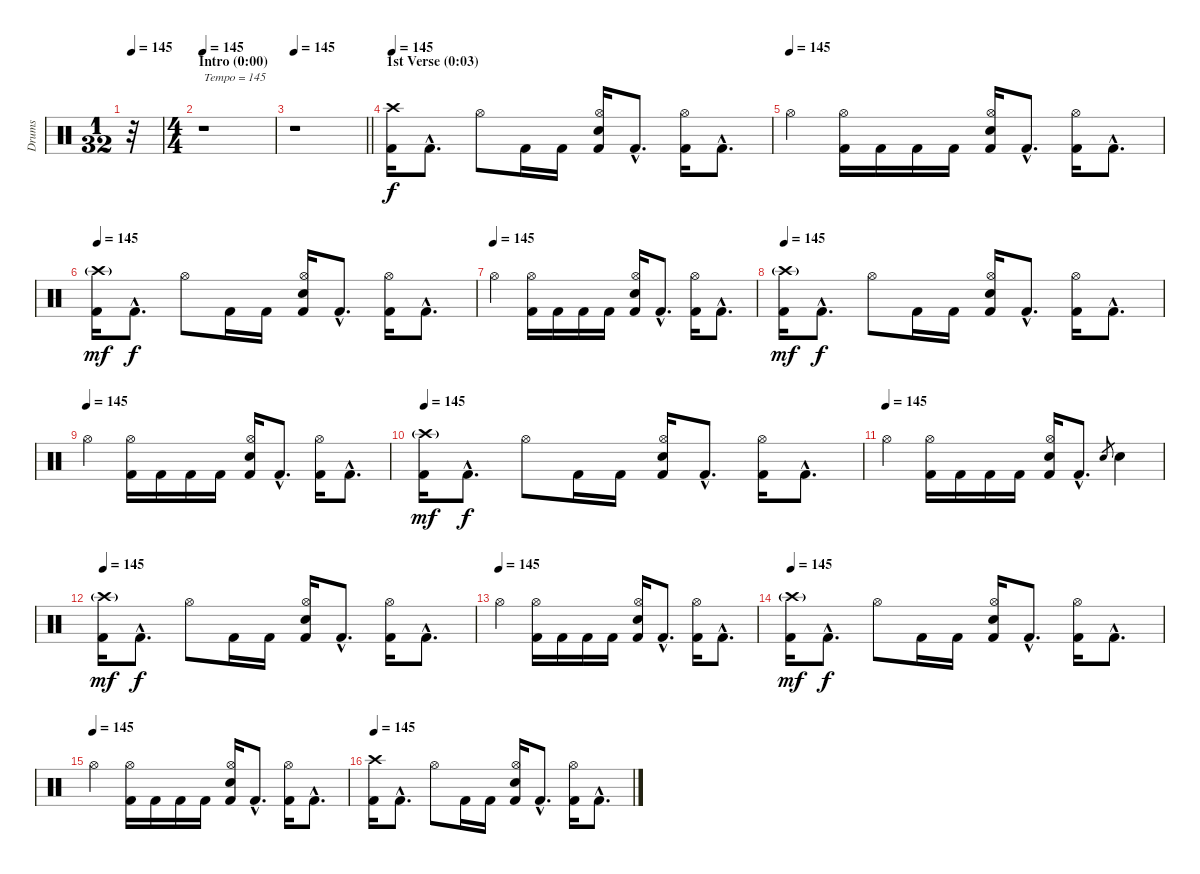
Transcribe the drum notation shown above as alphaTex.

\track ("Drums" "Drums") {instrument percussion}
\staff {score}
\articulation defaults
\ts (1 32)
\tempo 145
\clef neutral
\ks c
r.32{dy f} |
\ts (4 4)
\section ("" "Intro (0:00)")
\tempo 145
r.1{txt "Tempo = 145"} |
\tempo 145
\barLineRight lightlight
r.1 |
\section ("" "1st Verse (0:03)")
\tempo 145
("Crash high (hit)" "Kick (hit) 2").16 "Kick (hit) 2"{hac}.8{d} "Hi-Hat (open)".8 "Kick (hit) 2".16 "Kick (hit) 2".16 ("Hi-Hat (open)" "Snare (hit) 2" "Kick (hit) 2").16 "Kick (hit) 2"{hac}.8{d} ("Hi-Hat (open)" "Kick (hit) 2").16 "Kick (hit) 2"{hac}.8{d} |
\tempo (145)
"Hi-Hat (open)".4 ("Hi-Hat (open)" "Kick (hit) 2").16 "Kick (hit) 2".16 "Kick (hit) 2".16 "Kick (hit) 2".16 ("Hi-Hat (open)" "Snare (hit) 2" "Kick (hit) 2").16 "Kick (hit) 2"{hac}.8{d} ("Hi-Hat (open)" "Kick (hit) 2").16 "Kick (hit) 2"{hac}.8{d} |
\tempo 145
("Crash high (hit)"{g} "Kick (hit) 2").16{dy mf} "Kick (hit) 2"{hac}.8{d dy f} "Hi-Hat (open)".8 "Kick (hit) 2".16 "Kick (hit) 2".16 ("Hi-Hat (open)" "Snare (hit) 2" "Kick (hit) 2").16 "Kick (hit) 2"{hac}.8{d} ("Hi-Hat (open)" "Kick (hit) 2").16 "Kick (hit) 2"{hac}.8{d} |
\tempo (145)
"Hi-Hat (open)".4 ("Hi-Hat (open)" "Kick (hit) 2").16 "Kick (hit) 2".16 "Kick (hit) 2".16 "Kick (hit) 2".16 ("Hi-Hat (open)" "Snare (hit) 2" "Kick (hit) 2").16 "Kick (hit) 2"{hac}.8{d} ("Hi-Hat (open)" "Kick (hit) 2").16 "Kick (hit) 2"{hac}.8{d} |
\tempo 145
("Crash high (hit)"{g} "Kick (hit) 2").16{dy mf} "Kick (hit) 2"{hac}.8{d dy f} "Hi-Hat (open)".8 "Kick (hit) 2".16 "Kick (hit) 2".16 ("Hi-Hat (open)" "Snare (hit) 2" "Kick (hit) 2").16 "Kick (hit) 2"{hac}.8{d} ("Hi-Hat (open)" "Kick (hit) 2").16 "Kick (hit) 2"{hac}.8{d} |
\tempo (145)
"Hi-Hat (open)".4 ("Hi-Hat (open)" "Kick (hit) 2").16 "Kick (hit) 2".16 "Kick (hit) 2".16 "Kick (hit) 2".16 ("Hi-Hat (open)" "Snare (hit) 2" "Kick (hit) 2").16 "Kick (hit) 2"{hac}.8{d} ("Hi-Hat (open)" "Kick (hit) 2").16 "Kick (hit) 2"{hac}.8{d} |
\tempo 145
("Crash high (hit)"{g} "Kick (hit) 2").16{dy mf} "Kick (hit) 2"{hac}.8{d dy f} "Hi-Hat (open)".8 "Kick (hit) 2".16 "Kick (hit) 2".16 ("Hi-Hat (open)" "Snare (hit) 2" "Kick (hit) 2").16 "Kick (hit) 2"{hac}.8{d} ("Hi-Hat (open)" "Kick (hit) 2").16 "Kick (hit) 2"{hac}.8{d} |
\tempo (145)
"Hi-Hat (open)".4 ("Hi-Hat (open)" "Kick (hit) 2").16 "Kick (hit) 2".16 "Kick (hit) 2".16 "Kick (hit) 2".16 ("Hi-Hat (open)" "Snare (hit) 2" "Kick (hit) 2").16 "Kick (hit) 2"{hac}.8{d} "Snare (hit) 2".8{gr} "Snare (hit) 2".4 |
\tempo 145
("Crash high (hit)"{g} "Kick (hit) 2").16{dy mf} "Kick (hit) 2"{hac}.8{d dy f} "Hi-Hat (open)".8 "Kick (hit) 2".16 "Kick (hit) 2".16 ("Hi-Hat (open)" "Snare (hit) 2" "Kick (hit) 2").16 "Kick (hit) 2"{hac}.8{d} ("Hi-Hat (open)" "Kick (hit) 2").16 "Kick (hit) 2"{hac}.8{d} |
\tempo (145)
"Hi-Hat (open)".4 ("Hi-Hat (open)" "Kick (hit) 2").16 "Kick (hit) 2".16 "Kick (hit) 2".16 "Kick (hit) 2".16 ("Hi-Hat (open)" "Snare (hit) 2" "Kick (hit) 2").16 "Kick (hit) 2"{hac}.8{d} ("Hi-Hat (open)" "Kick (hit) 2").16 "Kick (hit) 2"{hac}.8{d} |
\tempo 145
("Crash high (hit)"{g} "Kick (hit) 2").16{dy mf} "Kick (hit) 2"{hac}.8{d dy f} "Hi-Hat (open)".8 "Kick (hit) 2".16 "Kick (hit) 2".16 ("Hi-Hat (open)" "Snare (hit) 2" "Kick (hit) 2").16 "Kick (hit) 2"{hac}.8{d} ("Hi-Hat (open)" "Kick (hit) 2").16 "Kick (hit) 2"{hac}.8{d} |
\tempo (145)
"Hi-Hat (open)".4 ("Hi-Hat (open)" "Kick (hit) 2").16 "Kick (hit) 2".16 "Kick (hit) 2".16 "Kick (hit) 2".16 ("Hi-Hat (open)" "Snare (hit) 2" "Kick (hit) 2").16 "Kick (hit) 2"{hac}.8{d} ("Hi-Hat (open)" "Kick (hit) 2").16 "Kick (hit) 2"{hac}.8{d} |
\tempo 145
("Crash high (hit)" "Kick (hit) 2").16 "Kick (hit) 2"{hac}.8{d} "Hi-Hat (open)".8 "Kick (hit) 2".16 "Kick (hit) 2".16 ("Hi-Hat (open)" "Snare (hit) 2" "Kick (hit) 2").16 "Kick (hit) 2"{hac}.8{d} ("Hi-Hat (open)" "Kick (hit) 2").16 "Kick (hit) 2"{hac}.8{d}
